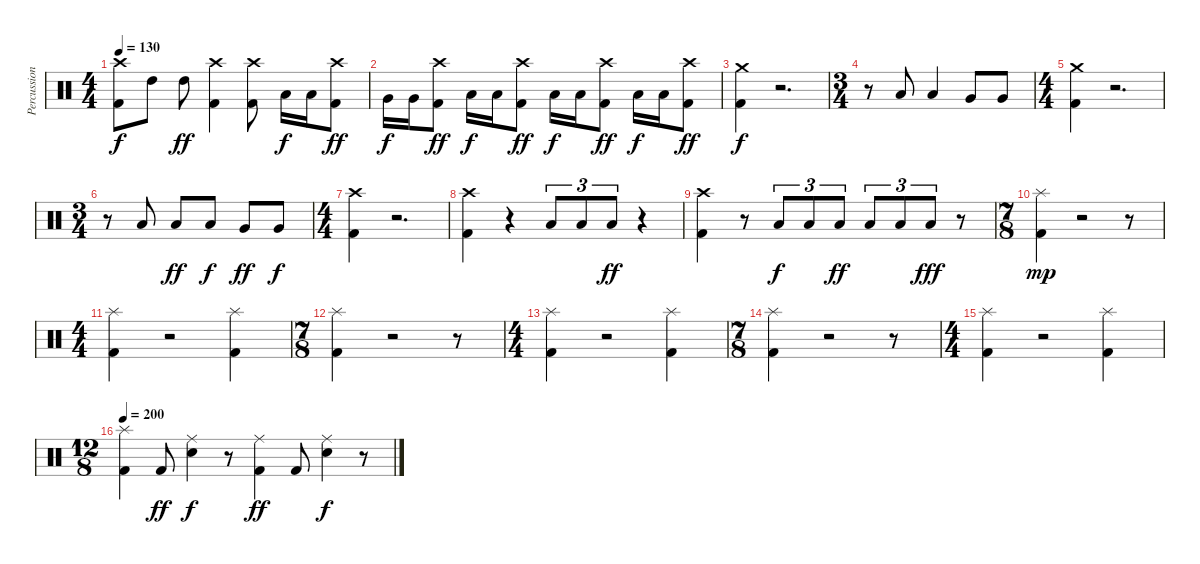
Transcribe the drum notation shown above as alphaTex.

\track ("Percussion" "Percussion") {instrument percussion}
\staff {score}
\articulation defaults
\ts (4 4)
\tempo 130
\clef neutral
\ks c
("Kick (hit) 2" "Crash high (hit)").8{dy f} "High Tom (hit)".8 "High Tom (hit)".8{dy ff} ("Kick (hit) 2" "Crash high (hit)").4 ("Kick (hit) 2" "Crash high (hit)").8 "Low Tom (hit)".16{dy f} "Low Tom (hit)".16 ("Kick (hit) 2" "Crash high (hit)").8{dy ff} |
"Very Low Tom (hit)".16{dy f} "Very Low Tom (hit)".16 ("Kick (hit) 2" "Crash high (hit)").8{dy ff} "Low Floor Tom (hit)".16{dy f} "Low Floor Tom (hit)".16 ("Kick (hit) 2" "Crash high (hit)").8{dy ff} "Low Floor Tom (hit)".16{dy f} "Low Floor Tom (hit)".16 ("Kick (hit) 2" "Crash high (hit)").8{dy ff} "Low Floor Tom (hit)".16{dy f} "Low Floor Tom (hit)".16 ("Kick (hit) 2" "Crash high (hit)").8{dy ff} |
("Kick (hit) 2" "Crash medium (hit)").4{dy f} r.2{d} |
\ts (3 4)
r.8 "Low Tom (hit)".8 "Low Tom (hit)".4 "Very Low Tom (hit)".8 "Very Low Tom (hit)".8 |
\ts (4 4)
("Kick (hit) 2" "Crash medium (hit)").4 r.2{d} |
\ts (3 4)
r.8 "Low Tom (hit)".8 "Low Tom (hit)".8{dy ff} "Low Tom (hit)".8{dy f} "Very Low Tom (hit)".8{dy ff} "Very Low Tom (hit)".8{dy f} |
\ts (4 4)
("Kick (hit) 2" "Crash high (hit)").4 r.2{d} |
("Kick (hit) 2" "Crash high (hit)").4 r.4 "Low Tom (hit)".8{tu (3 2)} "Low Tom (hit)".8{tu (3 2)} "Low Tom (hit)".8{tu (3 2) dy ff} r.4 |
("Kick (hit) 2" "Crash high (hit)").4 r.8 "Low Tom (hit)".8{tu (3 2) dy f} "Low Tom (hit)".8{tu (3 2)} "Low Tom (hit)".8{tu (3 2) dy ff} "Low Tom (hit)".8{tu (3 2)} "Low Tom (hit)".8{tu (3 2)} "Low Tom (hit)".8{tu (3 2) dy fff} r.8 |
\ts (7 8)
("Kick (hit) 2" "Splash (hit)").4{dy mp} r.2 r.8 |
\ts (4 4)
("Kick (hit) 2" "Splash (hit)").4 r.2 ("Kick (hit) 2" "Splash (hit)").4 |
\ts (7 8)
("Kick (hit) 2" "Splash (hit)").4 r.2 r.8 |
\ts (4 4)
("Kick (hit) 2" "Splash (hit)").4 r.2 ("Kick (hit) 2" "Splash (hit)").4 |
\ts (7 8)
("Kick (hit) 2" "Splash (hit)").4 r.2 r.8 |
\ts (4 4)
("Kick (hit) 2" "Splash (hit)").4 r.2 ("Kick (hit) 2" "Splash (hit)").4 |
\ts (12 8)
\tempo 200
("Kick (hit) 2" "Splash (hit)").4 "Kick (hit) 2".8{dy ff} ("Snare (hit) 2" "Ride (middle)").4{dy f} r.8 ("Kick (hit) 2" "Ride (middle)").4{dy ff} "Kick (hit) 2".8 ("Snare (hit) 2" "Ride (middle)").4{dy f} r.8
